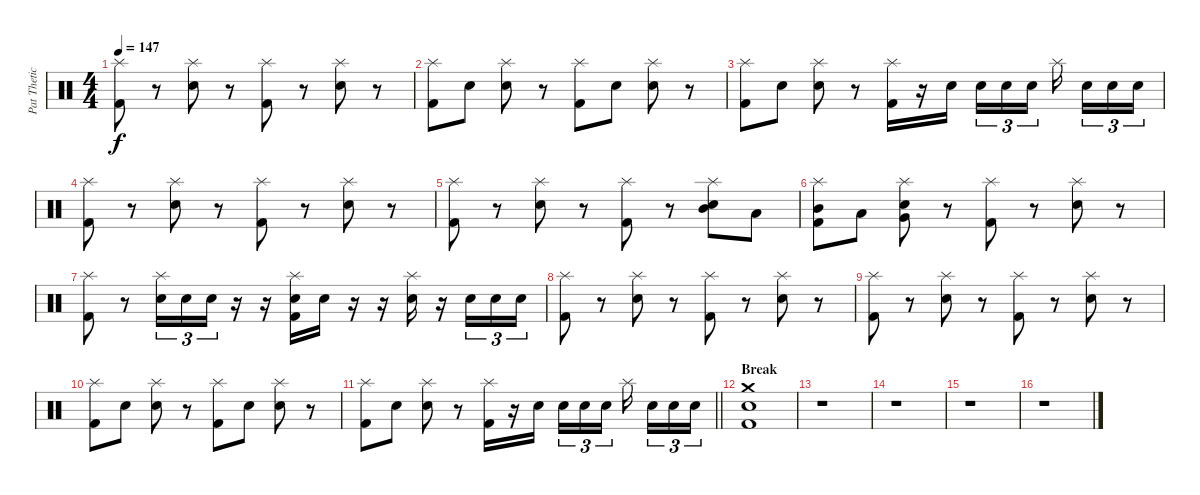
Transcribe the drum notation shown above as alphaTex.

\track ("Pat Thetic Drums" "Pat Thetic") {instrument percussion}
\staff {score}
\articulation defaults
\ts (4 4)
\tempo 147
\clef neutral
\ks c
("Splash (hit)" "Kick (hit) 2").8{dy f} r.8 ("Splash (hit)" "Snare (hit) 2").8 r.8 ("Splash (hit)" "Kick (hit) 2").8 r.8 ("Splash (hit)" "Snare (hit) 2").8 r.8 |
("Splash (hit)" "Kick (hit) 2").8 "Snare (hit) 2".8 ("Splash (hit)" "Snare (hit) 2").8 r.8 ("Splash (hit)" "Kick (hit) 2").8 "Snare (hit) 2".8 ("Splash (hit)" "Snare (hit) 2").8 r.8 |
("Splash (hit)" "Kick (hit) 2").8 "Snare (hit) 2".8 ("Splash (hit)" "Snare (hit) 2").8 r.8 ("Splash (hit)" "Kick (hit) 2").16 r.16 "Snare (hit) 2".16{beam splitsecondary} "Snare (hit) 2".16{tu (3 2)} "Snare (hit) 2".16{tu (3 2)} "Snare (hit) 2".16{tu (3 2) beam splitsecondary} "Splash (hit)".16{beam splitsecondary} "Snare (hit) 2".16{tu (3 2)} "Snare (hit) 2".16{tu (3 2)} "Snare (hit) 2".16{tu (3 2)} |
("Splash (hit)" "Kick (hit) 2").8 r.8 ("Splash (hit)" "Snare (hit) 2").8 r.8 ("Splash (hit)" "Kick (hit) 2").8 r.8 ("Splash (hit)" "Snare (hit) 2").8 r.8 |
("Splash (hit)" "Kick (hit) 2").8 r.8 ("Splash (hit)" "Snare (hit) 2").8 r.8 ("Splash (hit)" "Kick (hit) 2").8 r.8 ("Splash (hit)" "Snare (hit) 2" "Mid Tom (hit)").8 "Low Floor Tom (hit)".8 |
("Splash (hit)" "Kick (hit) 2" "Mid Tom (hit)").8 "Low Floor Tom (hit)".8 ("Splash (hit)" "Snare (hit) 2" "Very Low Tom (hit)").8 r.8 ("Splash (hit)" "Kick (hit) 2").8 r.8 ("Splash (hit)" "Snare (hit) 2").8 r.8 |
("Splash (hit)" "Kick (hit) 2").8 r.8 ("Splash (hit)" "Snare (hit) 2").16{tu (3 2)} "Snare (hit) 2".16{tu (3 2)} "Snare (hit) 2".16{tu (3 2)} r.16 r.16 ("Splash (hit)" "Kick (hit) 2" "Snare (hit) 2").16 "Snare (hit) 2".16 r.16 r.16 ("Splash (hit)" "Snare (hit) 2").16 r.16 "Snare (hit) 2".16{tu (3 2)} "Snare (hit) 2".16{tu (3 2)} "Snare (hit) 2".16{tu (3 2)} |
("Splash (hit)" "Kick (hit) 2").8 r.8 ("Splash (hit)" "Snare (hit) 2").8 r.8 ("Splash (hit)" "Kick (hit) 2").8 r.8 ("Splash (hit)" "Snare (hit) 2").8 r.8 |
("Splash (hit)" "Kick (hit) 2").8 r.8 ("Splash (hit)" "Snare (hit) 2").8 r.8 ("Splash (hit)" "Kick (hit) 2").8 r.8 ("Splash (hit)" "Snare (hit) 2").8 r.8 |
("Splash (hit)" "Kick (hit) 2").8 "Snare (hit) 2".8 ("Splash (hit)" "Snare (hit) 2").8 r.8 ("Splash (hit)" "Kick (hit) 2").8 "Snare (hit) 2".8 ("Splash (hit)" "Snare (hit) 2").8 r.8 |
\barLineRight lightlight
("Splash (hit)" "Kick (hit) 2").8 "Snare (hit) 2".8 ("Splash (hit)" "Snare (hit) 2").8 r.8 ("Splash (hit)" "Kick (hit) 2").16 r.16 "Snare (hit) 2".16{beam splitsecondary} "Snare (hit) 2".16{tu (3 2)} "Snare (hit) 2".16{tu (3 2)} "Snare (hit) 2".16{tu (3 2) beam splitsecondary} "Splash (hit)".16{beam splitsecondary} "Snare (hit) 2".16{tu (3 2)} "Snare (hit) 2".16{tu (3 2)} "Snare (hit) 2".16{tu (3 2)} |
\section ("" "Break")
("Crash medium (hit)" "Kick (hit) 2" "Snare (hit) 2").1 |
r.1 |
r.1 |
r.1 |
r.1
